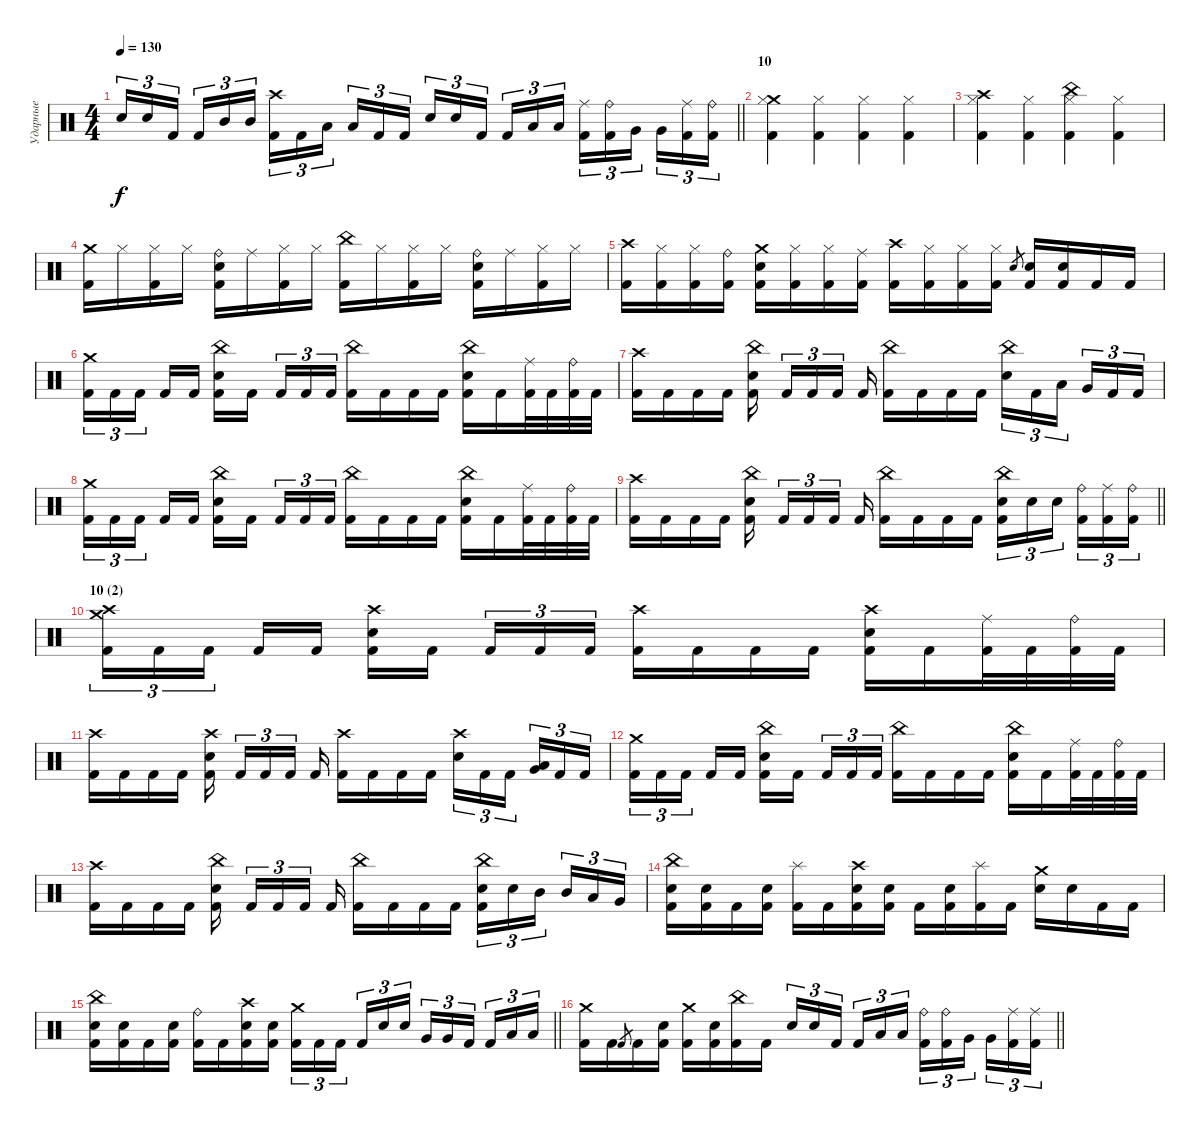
\track ("Ударные" "Ударные") {instrument percussion}
\staff {score}
\articulation defaults
\ts (4 4)
\tempo 130
\clef neutral
\barLineRight lightlight
\ks c "Electric Snare (hit)".16{tu (3 2) dy f} "Electric Snare (hit)".16{tu (3 2)} "Kick (hit) 2".16{tu (3 2) beam splitsecondary} "Kick (hit) 2".16{tu (3 2)} "Mid Tom (hit)".16{tu (3 2)} "Mid Tom (hit)".16{tu (3 2)}
("Crash high (hit)" "Kick (hit) 2").16{tu (3 2)} "Kick (hit) 2".16{tu (3 2)} "Low Tom (hit)".16{tu (3 2) beam splitsecondary} "Low Tom (hit)".16{tu (3 2)} "Kick (hit) 2".16{tu (3 2)} "Kick (hit) 2".16{tu (3 2)} "Electric Snare (hit)".16{tu (3 2)} "Electric Snare (hit)".16{tu (3 2)} "Kick (hit) 2".16{tu (3 2) beam splitsecondary} "Kick (hit) 2".16{tu (3 2)} "Low Tom (hit)".16{tu (3 2)} "Low Tom (hit)".16{tu (3 2)} ("Ride (middle)" "Kick (hit) 2").16{tu (3 2)} ("Ride (bell)" "Kick (hit) 2").16{tu (3 2)} "Very Low Tom (hit)".16{tu (3 2) beam splitsecondary} "Very Low Tom (hit)".16{tu (3 2)} ("Ride (middle)" "Kick (hit) 2").16{tu (3 2)} ("Ride (bell)" "Kick (hit) 2").16{tu (3 2)} |
\section ("" "10")
("Crash medium (hit)" "Hi-Hat (closed)" "Kick (hit) 2").4 ("Hi-Hat (closed)" "Kick (hit) 2").4 ("Hi-Hat (closed)" "Kick (hit) 2").4 ("Hi-Hat (closed)" "Kick (hit) 2").4 |
("Crash high (hit)" "Hi-Hat (closed)" "Kick (hit) 2").4 ("Hi-Hat (closed)" "Kick (hit) 2").4 ("China (hit)" "Hi-Hat (closed)" "Kick (hit) 2").4 ("Hi-Hat (closed)" "Kick (hit) 2").4 |
("Crash medium (hit)" "Kick (hit) 2").16 "Hi-Hat (closed)".16 ("Hi-Hat (closed)" "Kick (hit) 2").16 "Hi-Hat (closed)".16 ("Ride (bell)" "Electric Snare (hit)" "Kick (hit) 2").16 "Ride (middle)".16 ("Hi-Hat (closed)" "Kick (hit) 2").16 "Hi-Hat (closed)".16 ("China (hit)" "Kick (hit) 2").16 "Hi-Hat (closed)".16 ("Hi-Hat (closed)" "Kick (hit) 2").16 "Hi-Hat (closed)".16 ("Ride (bell)" "Electric Snare (hit)" "Kick (hit) 2").16 "Ride (middle)".16 ("Hi-Hat (closed)" "Kick (hit) 2").16 "Hi-Hat (closed)".16 |
("Crash high (hit)" "Kick (hit) 2").16 ("Hi-Hat (closed)" "Kick (hit) 2").16 ("Hi-Hat (closed)" "Kick (hit) 2").16 ("Ride (bell)" "Kick (hit) 2").16 ("Crash medium (hit)" "Electric Snare (hit)" "Kick (hit) 2").16 ("Hi-Hat (closed)" "Kick (hit) 2").16 ("Hi-Hat (closed)" "Kick (hit) 2").16 ("Ride (middle)" "Kick (hit) 2").16 ("Crash high (hit)" "Kick (hit) 2").16 ("Hi-Hat (closed)" "Kick (hit) 2").16 ("Hi-Hat (closed)" "Kick (hit) 2").16 ("Hi-Hat (closed)" "Kick (hit) 2").16 "Electric Snare (hit)".8{gr} ("Electric Snare (hit)" "Kick (hit) 2").16 ("Electric Snare (hit)" "Kick (hit) 2").16 "Kick (hit) 2".16 "Kick (hit) 2".16 |
("Crash medium (hit)" "Kick (hit) 2").16{tu (3 2)} "Kick (hit) 2".16{tu (3 2)} "Kick (hit) 2".16{tu (3 2) beam splitsecondary} "Kick (hit) 2".16 "Kick (hit) 2".16 ("China (hit)" "Electric Snare (hit)" "Kick (hit) 2").16 "Kick (hit) 2".16{beam splitsecondary} "Kick (hit) 2".16{tu (3 2)} "Kick (hit) 2".16{tu (3 2)} "Kick (hit) 2".16{tu (3 2)} ("China (hit)" "Kick (hit) 2").16 "Kick (hit) 2".16 "Kick (hit) 2".16 "Kick (hit) 2".16 ("China (hit)" "Electric Snare (hit)" "Kick (hit) 2").16 "Kick (hit) 2".16 ("Ride (middle)" "Kick (hit) 2").32 "Kick (hit) 2".32 ("Ride (bell)" "Kick (hit) 2").32 "Kick (hit) 2".32 |
("Crash high (hit)" "Kick (hit) 2").16 "Kick (hit) 2".16 "Kick (hit) 2".16 "Kick (hit) 2".16 ("China (hit)" "Electric Snare (hit)" "Kick (hit) 2").16{beam splitsecondary} "Kick (hit) 2".16{tu (3 2)} "Kick (hit) 2".16{tu (3 2)} "Kick (hit) 2".16{tu (3 2) beam splitsecondary} "Kick (hit) 2".16 ("China (hit)" "Kick (hit) 2").16 "Kick (hit) 2".16 "Kick (hit) 2".16 "Kick (hit) 2".16 ("China (hit)" "Electric Snare (hit)").16{tu (3 2)} "Kick (hit) 2".16{tu (3 2)} "Low Tom (hit)".16{tu (3 2) beam splitsecondary} "Very Low Tom (hit)".16{tu (3 2)} "Kick (hit) 2".16{tu (3 2)} "Kick (hit) 2".16{tu (3 2)} |
("Crash medium (hit)" "Kick (hit) 2").16{tu (3 2)} "Kick (hit) 2".16{tu (3 2)} "Kick (hit) 2".16{tu (3 2) beam splitsecondary} "Kick (hit) 2".16 "Kick (hit) 2".16 ("China (hit)" "Electric Snare (hit)" "Kick (hit) 2").16 "Kick (hit) 2".16{beam splitsecondary} "Kick (hit) 2".16{tu (3 2)} "Kick (hit) 2".16{tu (3 2)} "Kick (hit) 2".16{tu (3 2)} ("China (hit)" "Kick (hit) 2").16 "Kick (hit) 2".16 "Kick (hit) 2".16 "Kick (hit) 2".16 ("China (hit)" "Electric Snare (hit)" "Kick (hit) 2").16 "Kick (hit) 2".16 ("Ride (middle)" "Kick (hit) 2").32 "Kick (hit) 2".32 ("Ride (bell)" "Kick (hit) 2").32 "Kick (hit) 2".32 |
\barLineRight lightlight
("Crash high (hit)" "Kick (hit) 2").16 "Kick (hit) 2".16 "Kick (hit) 2".16 "Kick (hit) 2".16 ("China (hit)" "Electric Snare (hit)" "Kick (hit) 2").16{beam splitsecondary} "Kick (hit) 2".16{tu (3 2)} "Kick (hit) 2".16{tu (3 2)} "Kick (hit) 2".16{tu (3 2) beam splitsecondary} "Kick (hit) 2".16 ("China (hit)" "Kick (hit) 2").16 "Kick (hit) 2".16 "Kick (hit) 2".16 "Kick (hit) 2".16 ("China (hit)" "Electric Snare (hit)" "Kick (hit) 2").16{tu (3 2)} "Electric Snare (hit)".16{tu (3 2)} "Electric Snare (hit)".16{tu (3 2) beam splitsecondary} ("Ride (bell)" "Kick (hit) 2").16{tu (3 2)} ("Ride (middle)" "Kick (hit) 2").16{tu (3 2)} ("Ride (bell)" "Kick (hit) 2").16{tu (3 2)} |
\section ("" "10 (2)")
("Crash medium (hit)" "Crash high (hit)" "Kick (hit) 2").16{tu (3 2)} "Kick (hit) 2".16{tu (3 2)} "Kick (hit) 2".16{tu (3 2) beam splitsecondary} "Kick (hit) 2".16 "Kick (hit) 2".16 ("Crash high (hit)" "Electric Snare (hit)" "Kick (hit) 2").16 "Kick (hit) 2".16{beam splitsecondary} "Kick (hit) 2".16{tu (3 2)} "Kick (hit) 2".16{tu (3 2)} "Kick (hit) 2".16{tu (3 2)} ("Crash high (hit)" "Kick (hit) 2").16 "Kick (hit) 2".16 "Kick (hit) 2".16 "Kick (hit) 2".16 ("Crash high (hit)" "Electric Snare (hit)" "Kick (hit) 2").16 "Kick (hit) 2".16 ("Ride (middle)" "Kick (hit) 2").32 "Kick (hit) 2".32 ("Ride (bell)" "Kick (hit) 2").32 "Kick (hit) 2".32 |
("Crash high (hit)" "Kick (hit) 2").16 "Kick (hit) 2".16 "Kick (hit) 2".16 "Kick (hit) 2".16 ("Crash high (hit)" "Electric Snare (hit)" "Kick (hit) 2").16{beam splitsecondary} "Kick (hit) 2".16{tu (3 2)} "Kick (hit) 2".16{tu (3 2)} "Kick (hit) 2".16{tu (3 2) beam splitsecondary} "Kick (hit) 2".16 ("Crash high (hit)" "Kick (hit) 2").16 "Kick (hit) 2".16 "Kick (hit) 2".16 "Kick (hit) 2".16 ("Crash high (hit)" "Electric Snare (hit)").16{tu (3 2)} "Kick (hit) 2".16{tu (3 2)} "Kick (hit) 2".16{tu (3 2) beam splitsecondary} ("Low Tom (hit)" "Very Low Tom (hit)").16{tu (3 2)} "Kick (hit) 2".16{tu (3 2)} "Kick (hit) 2".16{tu (3 2)} |
("Crash medium (hit)" "Kick (hit) 2").16{tu (3 2)} "Kick (hit) 2".16{tu (3 2)} "Kick (hit) 2".16{tu (3 2) beam splitsecondary} "Kick (hit) 2".16 "Kick (hit) 2".16 ("China (hit)" "Electric Snare (hit)" "Kick (hit) 2").16 "Kick (hit) 2".16{beam splitsecondary} "Kick (hit) 2".16{tu (3 2)} "Kick (hit) 2".16{tu (3 2)} "Kick (hit) 2".16{tu (3 2)} ("China (hit)" "Kick (hit) 2").16 "Kick (hit) 2".16 "Kick (hit) 2".16 "Kick (hit) 2".16 ("China (hit)" "Electric Snare (hit)" "Kick (hit) 2").16 "Kick (hit) 2".16 ("Ride (middle)" "Kick (hit) 2").32 "Kick (hit) 2".32 ("Ride (bell)" "Kick (hit) 2").32 "Kick (hit) 2".32 |
("Crash high (hit)" "Kick (hit) 2").16 "Kick (hit) 2".16 "Kick (hit) 2".16 "Kick (hit) 2".16 ("China (hit)" "Electric Snare (hit)" "Kick (hit) 2").16{beam splitsecondary} "Kick (hit) 2".16{tu (3 2)} "Kick (hit) 2".16{tu (3 2)} "Kick (hit) 2".16{tu (3 2) beam splitsecondary} "Kick (hit) 2".16 ("China (hit)" "Kick (hit) 2").16 "Kick (hit) 2".16 "Kick (hit) 2".16 "Kick (hit) 2".16 ("China (hit)" "Electric Snare (hit)" "Kick (hit) 2").16{tu (3 2)} "Electric Snare (hit)".16{tu (3 2)} "Mid Tom (hit)".16{tu (3 2) beam splitsecondary} "Mid Tom (hit)".16{tu (3 2)} "Low Tom (hit)".16{tu (3 2)} "Very Low Tom (hit)".16{tu (3 2)} |
("China (hit)" "Electric Snare (hit)" "Kick (hit) 2").16 ("Electric Snare (hit)" "Kick (hit) 2").16 "Kick (hit) 2".16 ("Electric Snare (hit)" "Kick (hit) 2").16 ("Splash (hit)" "Kick (hit) 2").16 "Kick (hit) 2".16 ("Crash high (hit)" "Electric Snare (hit)" "Kick (hit) 2").16 ("Electric Snare (hit)" "Kick (hit) 2").16 "Kick (hit) 2".16 ("Electric Snare (hit)" "Kick (hit) 2").16 ("Splash (hit)" "Kick (hit) 2").16 "Kick (hit) 2".16 ("Crash medium (hit)" "Electric Snare (hit)").16 "Electric Snare (hit)".16 "Kick (hit) 2".16 "Kick (hit) 2".16 |
\barLineRight lightlight
("China (hit)" "Electric Snare (hit)" "Kick (hit) 2").16 ("Electric Snare (hit)" "Kick (hit) 2").16 "Kick (hit) 2".16 ("Electric Snare (hit)" "Kick (hit) 2").16 ("Ride (bell)" "Kick (hit) 2").16 "Kick (hit) 2".16 ("Crash high (hit)" "Electric Snare (hit)" "Kick (hit) 2").16 ("Electric Snare (hit)" "Kick (hit) 2").16 ("Crash medium (hit)" "Kick (hit) 2").16{tu (3 2)} "Kick (hit) 2".16{tu (3 2)} "Kick (hit) 2".16{tu (3 2) beam splitsecondary} "Kick (hit) 2".16{tu (3 2)} "Electric Snare (hit)".16{tu (3 2)} "Electric Snare (hit)".16{tu (3 2)} "Very Low Tom (hit)".16{tu (3 2)} "Very Low Tom (hit)".16{tu (3 2)} "Kick (hit) 2".16{tu (3 2) beam splitsecondary} "Kick (hit) 2".16{tu (3 2)} "Low Tom (hit)".16{tu (3 2)} "Low Tom (hit)".16{tu (3 2)} |
\barLineRight lightlight
("Crash medium (hit)" "Kick (hit) 2").16 "Kick (hit) 2".16 "Kick (hit) 2".8{gr} "Kick (hit) 2".16 ("Electric Snare (hit)" "Kick (hit) 2").16 ("Crash medium (hit)" "Kick (hit) 2").16 ("Electric Snare (hit)" "Kick (hit) 2").16 ("China (hit)" "Kick (hit) 2").16 "Kick (hit) 2".16 "Electric Snare (hit)".16{tu (3 2)} "Electric Snare (hit)".16{tu (3 2)} "Kick (hit) 2".16{tu (3 2) beam splitsecondary} "Kick (hit) 2".16{tu (3 2)} "Low Tom (hit)".16{tu (3 2)} "Low Tom (hit)".16{tu (3 2)} ("Ride (bell)" "Kick (hit) 2").16{tu (3 2)} ("Ride (bell)" "Kick (hit) 2").16{tu (3 2)} "Very Low Tom (hit)".16{tu (3 2) beam splitsecondary} "Very Low Tom (hit)".16{tu (3 2)} ("Ride (middle)" "Kick (hit) 2").16{tu (3 2)} ("Ride (middle)" "Kick (hit) 2").16{tu (3 2)}
